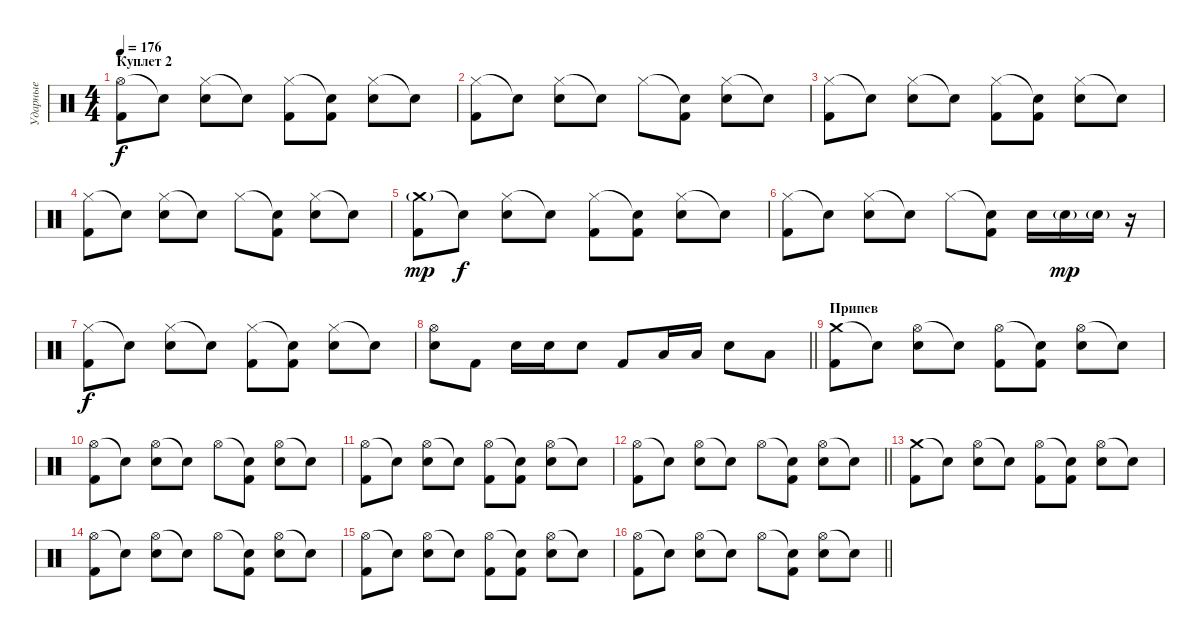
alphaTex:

\track ("Ударные" "Ударные") {instrument percussion}
\staff {score}
\articulation defaults
\ts (4 4)
\section ("" "Куплет 2")
\tempo 176
\clef neutral
\ks c
("Hi-Hat (open)" "Kick (hit) 2").8{dy f} "Snare (hit)"{t}.8 ("Hi-Hat (closed)" "Snare (hit) 2").8 "Snare (hit)"{t}.8 ("Hi-Hat (closed)" "Kick (hit) 2").8 ("Snare (hit)"{t} "Kick (hit) 2").8 ("Hi-Hat (closed)" "Snare (hit) 2").8 "Snare (hit)"{t}.8 |
("Hi-Hat (closed)" "Kick (hit) 2").8 "Snare (hit)"{t}.8 ("Hi-Hat (closed)" "Snare (hit) 2").8 "Snare (hit)"{t}.8 "Hi-Hat (closed)".8 ("Snare (hit)"{t} "Kick (hit) 2").8 ("Hi-Hat (closed)" "Snare (hit) 2").8 "Snare (hit)"{t}.8 |
("Hi-Hat (closed)" "Kick (hit) 2").8 "Snare (hit)"{t}.8 ("Hi-Hat (closed)" "Snare (hit) 2").8 "Snare (hit)"{t}.8 ("Hi-Hat (closed)" "Kick (hit) 2").8 ("Snare (hit)"{t} "Kick (hit) 2").8 ("Hi-Hat (closed)" "Snare (hit) 2").8 "Snare (hit)"{t}.8 |
("Hi-Hat (closed)" "Kick (hit) 2").8 "Snare (hit)"{t}.8 ("Hi-Hat (closed)" "Snare (hit) 2").8 "Snare (hit)"{t}.8 "Hi-Hat (closed)".8 ("Snare (hit)"{t} "Kick (hit) 2").8 ("Hi-Hat (closed)" "Snare (hit) 2").8 "Snare (hit)"{t}.8 |
("Crash medium (hit)"{g} "Kick (hit) 2").8{dy mp} "Snare (hit)"{t}.8{dy f} ("Hi-Hat (closed)" "Snare (hit) 2").8 "Snare (hit)"{t}.8 ("Hi-Hat (closed)" "Kick (hit) 2").8 ("Snare (hit)"{t} "Kick (hit) 2").8 ("Hi-Hat (closed)" "Snare (hit) 2").8 "Snare (hit)"{t}.8 |
("Hi-Hat (closed)" "Kick (hit) 2").8 "Snare (hit)"{t}.8 ("Hi-Hat (closed)" "Snare (hit) 2").8 "Snare (hit)"{t}.8 "Hi-Hat (closed)".8 ("Snare (hit)"{t} "Kick (hit) 2").8 "Snare (hit) 2".16 "Snare (hit) 2"{g}.16{dy mp} "Snare (hit) 2"{g}.16 r.16 |
("Hi-Hat (closed)" "Kick (hit) 2").8{dy f} "Snare (hit)"{t}.8 ("Hi-Hat (closed)" "Snare (hit) 2").8 "Snare (hit)"{t}.8 ("Hi-Hat (closed)" "Kick (hit) 2").8 ("Snare (hit)"{t} "Kick (hit) 2").8 ("Hi-Hat (closed)" "Snare (hit) 2").8 "Snare (hit)"{t}.8 |
\barLineRight lightlight
("Hi-Hat (open)" "Snare (hit) 2").8 "Kick (hit) 2".8 "Snare (hit) 2".16 "Snare (hit) 2".16 "Snare (hit) 2".8 "Kick (hit) 2".8 "Low Tom (hit)".16 "Low Tom (hit)".16 "Snare (hit) 2".8 "Low Floor Tom (hit)".8 |
\section ("" "Припев")
("Crash medium (hit)" "Kick (hit) 2").8 "Snare (hit)"{t}.8 ("Hi-Hat (open)" "Snare (hit) 2").8 "Snare (hit)"{t}.8 ("Hi-Hat (open)" "Kick (hit) 2").8 ("Snare (hit)"{t} "Kick (hit) 2").8 ("Hi-Hat (open)" "Snare (hit) 2").8 "Snare (hit)"{t}.8 |
("Hi-Hat (open)" "Kick (hit) 2").8 "Snare (hit)"{t}.8 ("Hi-Hat (open)" "Snare (hit) 2").8 "Snare (hit)"{t}.8 "Hi-Hat (open)".8 ("Snare (hit)"{t} "Kick (hit) 2").8 ("Hi-Hat (open)" "Snare (hit) 2").8 "Snare (hit)"{t}.8 |
("Hi-Hat (open)" "Kick (hit) 2").8 "Snare (hit)"{t}.8 ("Hi-Hat (open)" "Snare (hit) 2").8 "Snare (hit)"{t}.8 ("Hi-Hat (open)" "Kick (hit) 2").8 ("Snare (hit)"{t} "Kick (hit) 2").8 ("Hi-Hat (open)" "Snare (hit) 2").8 "Snare (hit)"{t}.8 |
\barLineRight lightlight
("Hi-Hat (open)" "Kick (hit) 2").8 "Snare (hit)"{t}.8 ("Hi-Hat (open)" "Snare (hit) 2").8 "Snare (hit)"{t}.8 "Hi-Hat (open)".8 ("Snare (hit)"{t} "Kick (hit) 2").8 ("Hi-Hat (open)" "Snare (hit) 2").8 "Snare (hit)"{t}.8 |
("Crash medium (hit)" "Kick (hit) 2").8 "Snare (hit)"{t}.8 ("Hi-Hat (open)" "Snare (hit) 2").8 "Snare (hit)"{t}.8 ("Hi-Hat (open)" "Kick (hit) 2").8 ("Snare (hit)"{t} "Kick (hit) 2").8 ("Hi-Hat (open)" "Snare (hit) 2").8 "Snare (hit)"{t}.8 |
("Hi-Hat (open)" "Kick (hit) 2").8 "Snare (hit)"{t}.8 ("Hi-Hat (open)" "Snare (hit) 2").8 "Snare (hit)"{t}.8 "Hi-Hat (open)".8 ("Snare (hit)"{t} "Kick (hit) 2").8 ("Hi-Hat (open)" "Snare (hit) 2").8 "Snare (hit)"{t}.8 |
("Hi-Hat (open)" "Kick (hit) 2").8 "Snare (hit)"{t}.8 ("Hi-Hat (open)" "Snare (hit) 2").8 "Snare (hit)"{t}.8 ("Hi-Hat (open)" "Kick (hit) 2").8 ("Snare (hit)"{t} "Kick (hit) 2").8 ("Hi-Hat (open)" "Snare (hit) 2").8 "Snare (hit)"{t}.8 |
\barLineRight lightlight
("Hi-Hat (open)" "Kick (hit) 2").8 "Snare (hit)"{t}.8 ("Hi-Hat (open)" "Snare (hit) 2").8 "Snare (hit)"{t}.8 "Hi-Hat (open)".8 ("Snare (hit)"{t} "Kick (hit) 2").8 ("Hi-Hat (open)" "Snare (hit) 2").8 "Snare (hit)"{t}.8
